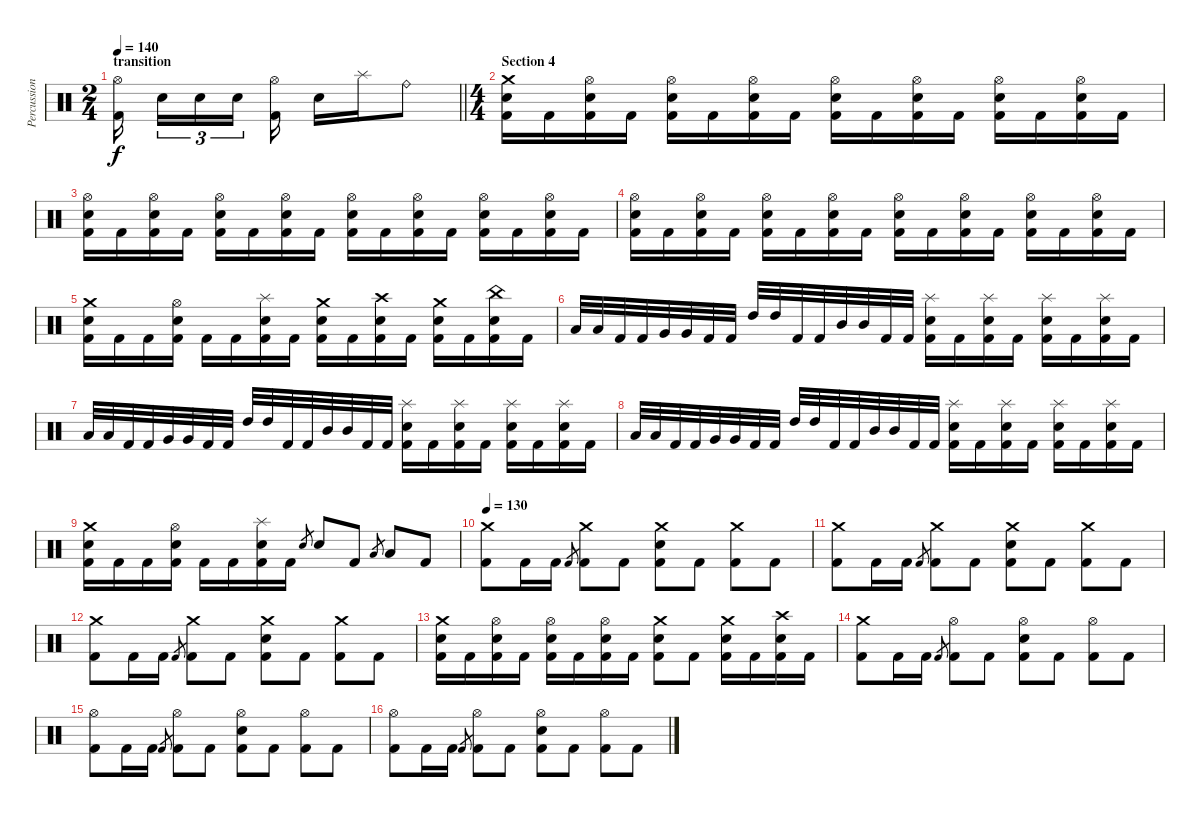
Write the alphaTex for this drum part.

\track ("Percussion" "Percussion") {instrument percussion}
\staff {score}
\articulation defaults
\ts (2 4)
\section ("" "transition")
\tempo 140
\clef neutral
\barLineRight lightlight
\ks c
("Hi-Hat (open)" "Kick (hit) 2").16{dy f beam splitsecondary} "Electric Snare (hit)".16{tu (3 2)} "Electric Snare (hit)".16{tu (3 2)} "Electric Snare (hit)".16{tu (3 2) beam splitsecondary} ("Hi-Hat (open)" "Kick (hit) 2").16 "Electric Snare (hit)".16 "Splash (hit)".16 "Ride (bell)".8 |
\ts (4 4)
\section ("" "Section 4")
("Crash medium (hit)" "Electric Snare (hit)" "Kick (hit) 2").16 "Kick (hit) 2".16 ("Hi-Hat (open)" "Electric Snare (hit)" "Kick (hit) 2").16 "Kick (hit) 2".16 ("Hi-Hat (open)" "Electric Snare (hit)" "Kick (hit) 2").16 "Kick (hit) 2".16 ("Hi-Hat (open)" "Electric Snare (hit)" "Kick (hit) 2").16 "Kick (hit) 2".16 ("Hi-Hat (open)" "Electric Snare (hit)" "Kick (hit) 2").16 "Kick (hit) 2".16 ("Hi-Hat (open)" "Electric Snare (hit)" "Kick (hit) 2").16 "Kick (hit) 2".16 ("Hi-Hat (open)" "Electric Snare (hit)" "Kick (hit) 2").16 "Kick (hit) 2".16 ("Hi-Hat (open)" "Electric Snare (hit)" "Kick (hit) 2").16 "Kick (hit) 2".16 |
("Hi-Hat (open)" "Electric Snare (hit)" "Kick (hit) 2").16 "Kick (hit) 2".16 ("Hi-Hat (open)" "Electric Snare (hit)" "Kick (hit) 2").16 "Kick (hit) 2".16 ("Hi-Hat (open)" "Electric Snare (hit)" "Kick (hit) 2").16 "Kick (hit) 2".16 ("Hi-Hat (open)" "Electric Snare (hit)" "Kick (hit) 2").16 "Kick (hit) 2".16 ("Hi-Hat (open)" "Electric Snare (hit)" "Kick (hit) 2").16 "Kick (hit) 2".16 ("Hi-Hat (open)" "Electric Snare (hit)" "Kick (hit) 2").16 "Kick (hit) 2".16 ("Hi-Hat (open)" "Electric Snare (hit)" "Kick (hit) 2").16 "Kick (hit) 2".16 ("Hi-Hat (open)" "Electric Snare (hit)" "Kick (hit) 2").16 "Kick (hit) 2".16 |
("Hi-Hat (open)" "Electric Snare (hit)" "Kick (hit) 2").16 "Kick (hit) 2".16 ("Hi-Hat (open)" "Electric Snare (hit)" "Kick (hit) 2").16 "Kick (hit) 2".16 ("Hi-Hat (open)" "Electric Snare (hit)" "Kick (hit) 2").16 "Kick (hit) 2".16 ("Hi-Hat (open)" "Electric Snare (hit)" "Kick (hit) 2").16 "Kick (hit) 2".16 ("Hi-Hat (open)" "Electric Snare (hit)" "Kick (hit) 2").16 "Kick (hit) 2".16 ("Hi-Hat (open)" "Electric Snare (hit)" "Kick (hit) 2").16 "Kick (hit) 2".16 ("Hi-Hat (open)" "Electric Snare (hit)" "Kick (hit) 2").16 "Kick (hit) 2".16 ("Hi-Hat (open)" "Electric Snare (hit)" "Kick (hit) 2").16 "Kick (hit) 2".16 |
("Crash medium (hit)" "Electric Snare (hit)" "Kick (hit) 2").16 "Kick (hit) 2".16 "Kick (hit) 2".16 ("Hi-Hat (open)" "Electric Snare (hit)" "Kick (hit) 2").16 "Kick (hit) 2".16 "Kick (hit) 2".16 ("Splash (hit)" "Electric Snare (hit)" "Kick (hit) 2").16 "Kick (hit) 2".16 ("Crash medium (hit)" "Electric Snare (hit)" "Kick (hit) 2").16 "Kick (hit) 2".16 ("Crash high (hit)" "Electric Snare (hit)" "Kick (hit) 2").16 "Kick (hit) 2".16 ("Crash medium (hit)" "Electric Snare (hit)" "Kick (hit) 2").16 "Kick (hit) 2".16 ("China (hit)" "Electric Snare (hit)" "Kick (hit) 2").16 "Kick (hit) 2".16 |
"Low Tom (hit)".32 "Low Tom (hit)".32 "Kick (hit) 2".32 "Kick (hit) 2".32 "Very Low Tom (hit)".32 "Very Low Tom (hit)".32 "Kick (hit) 2".32 "Kick (hit) 2".32 "High Tom (hit)".32 "High Tom (hit)".32 "Kick (hit) 2".32 "Kick (hit) 2".32 "Mid Tom (hit)".32 "Mid Tom (hit)".32 "Kick (hit) 2".32 "Kick (hit) 2".32 ("Splash (hit)" "Electric Snare (hit)" "Kick (hit) 2").16 "Kick (hit) 2".16 ("Splash (hit)" "Electric Snare (hit)" "Kick (hit) 2").16 "Kick (hit) 2".16 ("Splash (hit)" "Electric Snare (hit)" "Kick (hit) 2").16 "Kick (hit) 2".16 ("Splash (hit)" "Electric Snare (hit)" "Kick (hit) 2").16 "Kick (hit) 2".16 |
"Low Tom (hit)".32 "Low Tom (hit)".32 "Kick (hit) 2".32 "Kick (hit) 2".32 "Very Low Tom (hit)".32 "Very Low Tom (hit)".32 "Kick (hit) 2".32 "Kick (hit) 2".32 "High Tom (hit)".32 "High Tom (hit)".32 "Kick (hit) 2".32 "Kick (hit) 2".32 "Mid Tom (hit)".32 "Mid Tom (hit)".32 "Kick (hit) 2".32 "Kick (hit) 2".32 ("Splash (hit)" "Electric Snare (hit)" "Kick (hit) 2").16 "Kick (hit) 2".16 ("Splash (hit)" "Electric Snare (hit)" "Kick (hit) 2").16 "Kick (hit) 2".16 ("Splash (hit)" "Electric Snare (hit)" "Kick (hit) 2").16 "Kick (hit) 2".16 ("Splash (hit)" "Electric Snare (hit)" "Kick (hit) 2").16 "Kick (hit) 2".16 |
"Low Tom (hit)".32 "Low Tom (hit)".32 "Kick (hit) 2".32 "Kick (hit) 2".32 "Very Low Tom (hit)".32 "Very Low Tom (hit)".32 "Kick (hit) 2".32 "Kick (hit) 2".32 "High Tom (hit)".32 "High Tom (hit)".32 "Kick (hit) 2".32 "Kick (hit) 2".32 "Mid Tom (hit)".32 "Mid Tom (hit)".32 "Kick (hit) 2".32 "Kick (hit) 2".32 ("Splash (hit)" "Electric Snare (hit)" "Kick (hit) 2").16 "Kick (hit) 2".16 ("Splash (hit)" "Electric Snare (hit)" "Kick (hit) 2").16 "Kick (hit) 2".16 ("Splash (hit)" "Electric Snare (hit)" "Kick (hit) 2").16 "Kick (hit) 2".16 ("Splash (hit)" "Electric Snare (hit)" "Kick (hit) 2").16 "Kick (hit) 2".16 |
("Crash medium (hit)" "Electric Snare (hit)" "Kick (hit) 2").16 "Kick (hit) 2".16 "Kick (hit) 2".16 ("Hi-Hat (open)" "Electric Snare (hit)" "Kick (hit) 2").16 "Kick (hit) 2".16 "Kick (hit) 2".16 ("Splash (hit)" "Electric Snare (hit)" "Kick (hit) 2").16 "Kick (hit) 2".16 "Electric Snare (hit)".8{gr} "Electric Snare (hit)".8 "Kick (hit) 2".8 "Low Tom (hit)".8{gr} "Low Tom (hit)".8 "Kick (hit) 2".8 |
\tempo 130
("Crash medium (hit)" "Kick (hit) 2").8 "Kick (hit) 2".16 "Kick (hit) 2".16 "Kick (hit) 2".8{gr} ("Crash medium (hit)" "Kick (hit) 2").8 "Kick (hit) 2".8 ("Crash medium (hit)" "Electric Snare (hit)" "Kick (hit) 2").8 "Kick (hit) 2".8 ("Crash medium (hit)" "Kick (hit) 2").8 "Kick (hit) 2".8 |
("Crash medium (hit)" "Kick (hit) 2").8 "Kick (hit) 2".16 "Kick (hit) 2".16 "Kick (hit) 2".8{gr} ("Crash medium (hit)" "Kick (hit) 2").8 "Kick (hit) 2".8 ("Crash medium (hit)" "Electric Snare (hit)" "Kick (hit) 2").8 "Kick (hit) 2".8 ("Crash medium (hit)" "Kick (hit) 2").8 "Kick (hit) 2".8 |
("Crash medium (hit)" "Kick (hit) 2").8 "Kick (hit) 2".16 "Kick (hit) 2".16 "Kick (hit) 2".8{gr} ("Crash medium (hit)" "Kick (hit) 2").8 "Kick (hit) 2".8 ("Crash medium (hit)" "Electric Snare (hit)" "Kick (hit) 2").8 "Kick (hit) 2".8 ("Crash medium (hit)" "Kick (hit) 2").8 "Kick (hit) 2".8 |
("Crash medium (hit)" "Electric Snare (hit)" "Kick (hit) 2").16 "Kick (hit) 2".16 ("Hi-Hat (open)" "Electric Snare (hit)" "Kick (hit) 2").16 "Kick (hit) 2".16 ("Hi-Hat (open)" "Electric Snare (hit)" "Kick (hit) 2").16 "Kick (hit) 2".16 ("Hi-Hat (open)" "Electric Snare (hit)" "Kick (hit) 2").16 "Kick (hit) 2".16 ("Crash medium (hit)" "Electric Snare (hit)" "Kick (hit) 2").8 "Kick (hit) 2".8 ("Crash medium (hit)" "Electric Snare (hit)" "Kick (hit) 2").16 "Kick (hit) 2".16 ("Crash high (hit)" "Electric Snare (hit)" "Kick (hit) 2").16 "Kick (hit) 2".16 |
("Crash medium (hit)" "Kick (hit) 2").8 "Kick (hit) 2".16 "Kick (hit) 2".16 "Kick (hit) 2".8{gr} ("Hi-Hat (open)" "Kick (hit) 2").8 "Kick (hit) 2".8 ("Hi-Hat (open)" "Electric Snare (hit)" "Kick (hit) 2").8 "Kick (hit) 2".8 ("Hi-Hat (open)" "Kick (hit) 2").8 "Kick (hit) 2".8 |
("Hi-Hat (open)" "Kick (hit) 2").8 "Kick (hit) 2".16 "Kick (hit) 2".16 "Kick (hit) 2".8{gr} ("Hi-Hat (open)" "Kick (hit) 2").8 "Kick (hit) 2".8 ("Hi-Hat (open)" "Electric Snare (hit)" "Kick (hit) 2").8 "Kick (hit) 2".8 ("Hi-Hat (open)" "Kick (hit) 2").8 "Kick (hit) 2".8 |
("Hi-Hat (open)" "Kick (hit) 2").8 "Kick (hit) 2".16 "Kick (hit) 2".16 "Kick (hit) 2".8{gr} ("Hi-Hat (open)" "Kick (hit) 2").8 "Kick (hit) 2".8 ("Hi-Hat (open)" "Electric Snare (hit)" "Kick (hit) 2").8 "Kick (hit) 2".8 ("Hi-Hat (open)" "Kick (hit) 2").8 "Kick (hit) 2".8
